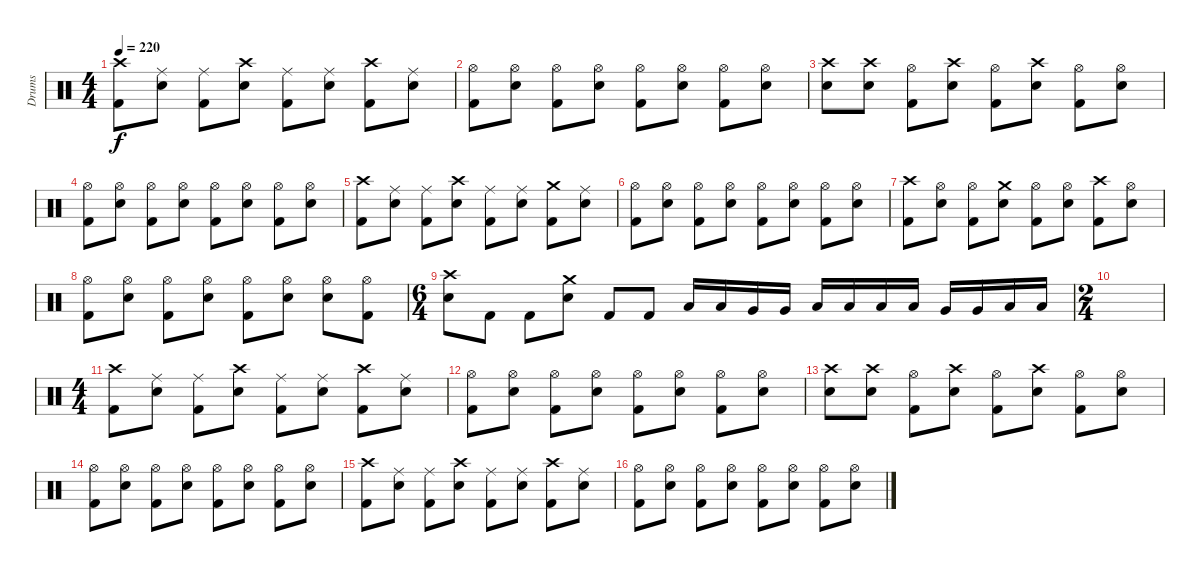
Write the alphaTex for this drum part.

\track ("Drums" "Drums") {instrument percussion}
\staff {score}
\articulation defaults
\ts (4 4)
\tempo 220
\clef neutral
\ks c
("Crash high (hit)" "Kick (hit) 2").8{dy f} ("Ride (middle)" "Electric Snare (hit)").8 ("Ride (middle)" "Kick (hit) 2").8 ("Crash high (hit)" "Electric Snare (hit)").8 ("Ride (middle)" "Kick (hit) 2").8 ("Ride (middle)" "Electric Snare (hit)").8 ("Crash high (hit)" "Kick (hit) 2").8 ("Ride (middle)" "Electric Snare (hit)").8 |
("Hi-Hat (open)" "Kick (hit) 2").8 ("Hi-Hat (open)" "Electric Snare (hit)").8 ("Hi-Hat (open)" "Kick (hit) 2").8 ("Hi-Hat (open)" "Electric Snare (hit)").8 ("Hi-Hat (open)" "Kick (hit) 2").8 ("Hi-Hat (open)" "Electric Snare (hit)").8 ("Hi-Hat (open)" "Kick (hit) 2").8 ("Hi-Hat (open)" "Electric Snare (hit)").8 |
("Crash high (hit)" "Electric Snare (hit)").8 ("Crash high (hit)" "Electric Snare (hit)").8 ("Hi-Hat (open)" "Kick (hit) 2").8 ("Crash high (hit)" "Electric Snare (hit)").8 ("Hi-Hat (open)" "Kick (hit) 2").8 ("Crash high (hit)" "Electric Snare (hit)").8 ("Hi-Hat (open)" "Kick (hit) 2").8 ("Hi-Hat (open)" "Electric Snare (hit)").8 |
("Hi-Hat (open)" "Kick (hit) 2").8 ("Hi-Hat (open)" "Electric Snare (hit)").8 ("Hi-Hat (open)" "Kick (hit) 2").8 ("Hi-Hat (open)" "Electric Snare (hit)").8 ("Hi-Hat (open)" "Kick (hit) 2").8 ("Hi-Hat (open)" "Electric Snare (hit)").8 ("Hi-Hat (open)" "Kick (hit) 2").8 ("Hi-Hat (open)" "Electric Snare (hit)").8 |
("Crash high (hit)" "Kick (hit) 2").8 ("Ride (middle)" "Electric Snare (hit)").8 ("Ride (middle)" "Kick (hit) 2").8 ("Crash high (hit)" "Electric Snare (hit)").8 ("Ride (middle)" "Kick (hit) 2").8 ("Ride (middle)" "Electric Snare (hit)").8 ("Crash medium (hit)" "Kick (hit) 2").8 ("Ride (middle)" "Electric Snare (hit)").8 |
("Hi-Hat (open)" "Kick (hit) 2").8 ("Hi-Hat (open)" "Electric Snare (hit)").8 ("Hi-Hat (open)" "Kick (hit) 2").8 ("Hi-Hat (open)" "Electric Snare (hit)").8 ("Hi-Hat (open)" "Kick (hit) 2").8 ("Hi-Hat (open)" "Electric Snare (hit)").8 ("Hi-Hat (open)" "Kick (hit) 2").8 ("Hi-Hat (open)" "Electric Snare (hit)").8 |
("Crash high (hit)" "Kick (hit) 2").8 ("Hi-Hat (open)" "Electric Snare (hit)").8 ("Hi-Hat (open)" "Kick (hit) 2").8 ("Crash medium (hit)" "Electric Snare (hit)").8 ("Hi-Hat (open)" "Kick (hit) 2").8 ("Hi-Hat (open)" "Electric Snare (hit)").8 ("Crash high (hit)" "Kick (hit) 2").8 ("Hi-Hat (open)" "Electric Snare (hit)").8 |
("Hi-Hat (open)" "Kick (hit) 2").8 ("Hi-Hat (open)" "Electric Snare (hit)").8 ("Hi-Hat (open)" "Kick (hit) 2").8 ("Hi-Hat (open)" "Electric Snare (hit)").8 ("Hi-Hat (open)" "Kick (hit) 2").8 ("Hi-Hat (open)" "Electric Snare (hit)").8 ("Hi-Hat (open)" "Electric Snare (hit)").8 ("Hi-Hat (open)" "Kick (hit) 2").8 |
\ts (6 4)
("Crash high (hit)" "Electric Snare (hit)").8 "Kick (hit) 2".8 "Kick (hit) 2".8 ("Crash medium (hit)" "Electric Snare (hit)").8 "Kick (hit) 2".8 "Kick (hit) 2".8 "Low Tom (hit)".16 "Low Tom (hit)".16 "Very Low Tom (hit)".16 "Very Low Tom (hit)".16 "Low Floor Tom (hit)".16 "Low Floor Tom (hit)".16 "Low Tom (hit)".16 "Low Tom (hit)".16 "Very Low Tom (hit)".16 "Very Low Tom (hit)".16 "Low Floor Tom (hit)".16 "Low Floor Tom (hit)".16 |
\ts (2 4)
|
\ts (4 4)
("Crash high (hit)" "Kick (hit) 2").8 ("Ride (middle)" "Electric Snare (hit)").8 ("Ride (middle)" "Kick (hit) 2").8 ("Crash high (hit)" "Electric Snare (hit)").8 ("Ride (middle)" "Kick (hit) 2").8 ("Ride (middle)" "Electric Snare (hit)").8 ("Crash high (hit)" "Kick (hit) 2").8 ("Ride (middle)" "Electric Snare (hit)").8 |
("Hi-Hat (open)" "Kick (hit) 2").8 ("Hi-Hat (open)" "Electric Snare (hit)").8 ("Hi-Hat (open)" "Kick (hit) 2").8 ("Hi-Hat (open)" "Electric Snare (hit)").8 ("Hi-Hat (open)" "Kick (hit) 2").8 ("Hi-Hat (open)" "Electric Snare (hit)").8 ("Hi-Hat (open)" "Kick (hit) 2").8 ("Hi-Hat (open)" "Electric Snare (hit)").8 |
("Crash high (hit)" "Electric Snare (hit)").8 ("Crash high (hit)" "Electric Snare (hit)").8 ("Hi-Hat (open)" "Kick (hit) 2").8 ("Crash high (hit)" "Electric Snare (hit)").8 ("Hi-Hat (open)" "Kick (hit) 2").8 ("Crash high (hit)" "Electric Snare (hit)").8 ("Hi-Hat (open)" "Kick (hit) 2").8 ("Hi-Hat (open)" "Electric Snare (hit)").8 |
("Hi-Hat (open)" "Kick (hit) 2").8 ("Hi-Hat (open)" "Electric Snare (hit)").8 ("Hi-Hat (open)" "Kick (hit) 2").8 ("Hi-Hat (open)" "Electric Snare (hit)").8 ("Hi-Hat (open)" "Kick (hit) 2").8 ("Hi-Hat (open)" "Electric Snare (hit)").8 ("Hi-Hat (open)" "Kick (hit) 2").8 ("Hi-Hat (open)" "Electric Snare (hit)").8 |
("Crash high (hit)" "Kick (hit) 2").8 ("Ride (middle)" "Electric Snare (hit)").8 ("Ride (middle)" "Kick (hit) 2").8 ("Crash high (hit)" "Electric Snare (hit)").8 ("Ride (middle)" "Kick (hit) 2").8 ("Ride (middle)" "Electric Snare (hit)").8 ("Crash high (hit)" "Kick (hit) 2").8 ("Ride (middle)" "Electric Snare (hit)").8 |
("Hi-Hat (open)" "Kick (hit) 2").8 ("Hi-Hat (open)" "Electric Snare (hit)").8 ("Hi-Hat (open)" "Kick (hit) 2").8 ("Hi-Hat (open)" "Electric Snare (hit)").8 ("Hi-Hat (open)" "Kick (hit) 2").8 ("Hi-Hat (open)" "Electric Snare (hit)").8 ("Hi-Hat (open)" "Kick (hit) 2").8 ("Hi-Hat (open)" "Electric Snare (hit)").8
